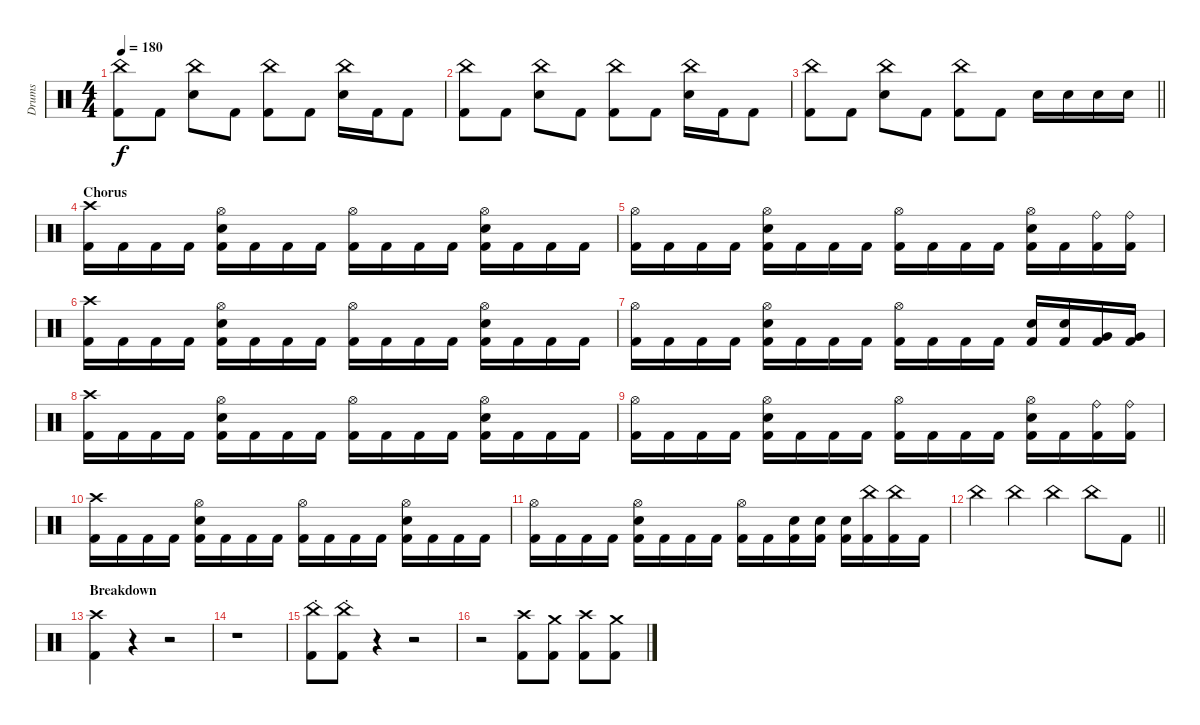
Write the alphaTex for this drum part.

\track ("Drums" "Drums") {instrument percussion}
\staff {score}
\articulation defaults
\ts (4 4)
\tempo 180
\clef neutral
\ks c
("China (hit)" "Kick (hit) 2").8{dy f} "Kick (hit) 2".8 ("China (hit)" "Snare (hit) 2").8 "Kick (hit) 2".8 ("China (hit)" "Kick (hit) 2").8 "Kick (hit) 2".8 ("China (hit)" "Snare (hit) 2").16 "Kick (hit) 2".16 "Kick (hit) 2".8 |
("China (hit)" "Kick (hit) 2").8 "Kick (hit) 2".8 ("China (hit)" "Snare (hit) 2").8 "Kick (hit) 2".8 ("China (hit)" "Kick (hit) 2").8 "Kick (hit) 2".8 ("China (hit)" "Snare (hit) 2").16 "Kick (hit) 2".16 "Kick (hit) 2".8 |
\barLineRight lightlight
("China (hit)" "Kick (hit) 2").8 "Kick (hit) 2".8 ("China (hit)" "Snare (hit) 2").8 "Kick (hit) 2".8 ("China (hit)" "Kick (hit) 2").8 "Kick (hit) 2".8 "Snare (hit) 2".16 "Snare (hit) 2".16 "Snare (hit) 2".16 "Snare (hit) 2".16 |
\section ("" "Chorus")
("Crash high (hit)" "Kick (hit) 2").16 "Kick (hit) 2".16 "Kick (hit) 2".16 "Kick (hit) 2".16 ("Hi-Hat (open)" "Snare (hit) 2" "Kick (hit) 2").16 "Kick (hit) 2".16 "Kick (hit) 2".16 "Kick (hit) 2".16 ("Hi-Hat (open)" "Kick (hit) 2").16 "Kick (hit) 2".16 "Kick (hit) 2".16 "Kick (hit) 2".16 ("Hi-Hat (open)" "Snare (hit) 2" "Kick (hit) 2").16 "Kick (hit) 2".16 "Kick (hit) 2".16 "Kick (hit) 2".16 |
("Hi-Hat (open)" "Kick (hit) 2").16 "Kick (hit) 2".16 "Kick (hit) 2".16 "Kick (hit) 2".16 ("Hi-Hat (open)" "Snare (hit) 2" "Kick (hit) 2").16 "Kick (hit) 2".16 "Kick (hit) 2".16 "Kick (hit) 2".16 ("Hi-Hat (open)" "Kick (hit) 2").16 "Kick (hit) 2".16 "Kick (hit) 2".16 "Kick (hit) 2".16 ("Hi-Hat (open)" "Snare (hit) 2" "Kick (hit) 2").16 "Kick (hit) 2".16 ("Ride (bell)" "Kick (hit) 2").16 ("Ride (bell)" "Kick (hit) 2").16 |
("Crash high (hit)" "Kick (hit) 2").16 "Kick (hit) 2".16 "Kick (hit) 2".16 "Kick (hit) 2".16 ("Hi-Hat (open)" "Snare (hit) 2" "Kick (hit) 2").16 "Kick (hit) 2".16 "Kick (hit) 2".16 "Kick (hit) 2".16 ("Hi-Hat (open)" "Kick (hit) 2").16 "Kick (hit) 2".16 "Kick (hit) 2".16 "Kick (hit) 2".16 ("Hi-Hat (open)" "Snare (hit) 2" "Kick (hit) 2").16 "Kick (hit) 2".16 "Kick (hit) 2".16 "Kick (hit) 2".16 |
("Hi-Hat (open)" "Kick (hit) 2").16 "Kick (hit) 2".16 "Kick (hit) 2".16 "Kick (hit) 2".16 ("Hi-Hat (open)" "Snare (hit) 2" "Kick (hit) 2").16 "Kick (hit) 2".16 "Kick (hit) 2".16 "Kick (hit) 2".16 ("Hi-Hat (open)" "Kick (hit) 2").16 "Kick (hit) 2".16 "Kick (hit) 2".16 "Kick (hit) 2".16 ("Snare (hit) 2" "Kick (hit) 2").16 ("Snare (hit) 2" "Kick (hit) 2").16 ("Very Low Tom (hit)" "Kick (hit) 2").16 ("Very Low Tom (hit)" "Kick (hit) 2").16 |
("Crash high (hit)" "Kick (hit) 2").16 "Kick (hit) 2".16 "Kick (hit) 2".16 "Kick (hit) 2".16 ("Hi-Hat (open)" "Snare (hit) 2" "Kick (hit) 2").16 "Kick (hit) 2".16 "Kick (hit) 2".16 "Kick (hit) 2".16 ("Hi-Hat (open)" "Kick (hit) 2").16 "Kick (hit) 2".16 "Kick (hit) 2".16 "Kick (hit) 2".16 ("Hi-Hat (open)" "Snare (hit) 2" "Kick (hit) 2").16 "Kick (hit) 2".16 "Kick (hit) 2".16 "Kick (hit) 2".16 |
("Hi-Hat (open)" "Kick (hit) 2").16 "Kick (hit) 2".16 "Kick (hit) 2".16 "Kick (hit) 2".16 ("Hi-Hat (open)" "Snare (hit) 2" "Kick (hit) 2").16 "Kick (hit) 2".16 "Kick (hit) 2".16 "Kick (hit) 2".16 ("Hi-Hat (open)" "Kick (hit) 2").16 "Kick (hit) 2".16 "Kick (hit) 2".16 "Kick (hit) 2".16 ("Hi-Hat (open)" "Snare (hit) 2" "Kick (hit) 2").16 "Kick (hit) 2".16 ("Ride (bell)" "Kick (hit) 2").16 ("Ride (bell)" "Kick (hit) 2").16 |
("Crash high (hit)" "Kick (hit) 2").16 "Kick (hit) 2".16 "Kick (hit) 2".16 "Kick (hit) 2".16 ("Hi-Hat (open)" "Snare (hit) 2" "Kick (hit) 2").16 "Kick (hit) 2".16 "Kick (hit) 2".16 "Kick (hit) 2".16 ("Hi-Hat (open)" "Kick (hit) 2").16 "Kick (hit) 2".16 "Kick (hit) 2".16 "Kick (hit) 2".16 ("Hi-Hat (open)" "Snare (hit) 2" "Kick (hit) 2").16 "Kick (hit) 2".16 "Kick (hit) 2".16 "Kick (hit) 2".16 |
("Hi-Hat (open)" "Kick (hit) 2").16 "Kick (hit) 2".16 "Kick (hit) 2".16 "Kick (hit) 2".16 ("Hi-Hat (open)" "Snare (hit) 2" "Kick (hit) 2").16 "Kick (hit) 2".16 "Kick (hit) 2".16 "Kick (hit) 2".16 ("Hi-Hat (open)" "Kick (hit) 2").16 "Kick (hit) 2".16 ("Snare (hit) 2" "Kick (hit) 2").16 ("Snare (hit) 2" "Kick (hit) 2").16 ("Snare (hit) 2" "Kick (hit) 2").16 ("China (hit)" "Kick (hit) 2").16 ("China (hit)" "Kick (hit) 2").16 "Kick (hit) 2".16 |
\barLineRight lightlight "China (hit)".4 "China (hit)".4 "China (hit)".4 "China (hit)".8 "Kick (hit) 2".8
|
\section ("" "Breakdown")
("Kick (hit) 2" "Crash high (hit)").4 r.4 r.2 |
r.1 |
("Kick (hit) 2" "China (hit)"{st}).8 ("Kick (hit) 2" "China (hit)"{st}).8 r.4 r.2 |
r.2 ("Kick (hit) 2" "Crash high (hit)").8 ("Kick (hit) 2" "Crash medium (hit)").8 ("Kick (hit) 2" "Crash high (hit)").8 ("Kick (hit) 2" "Crash medium (hit)").8
